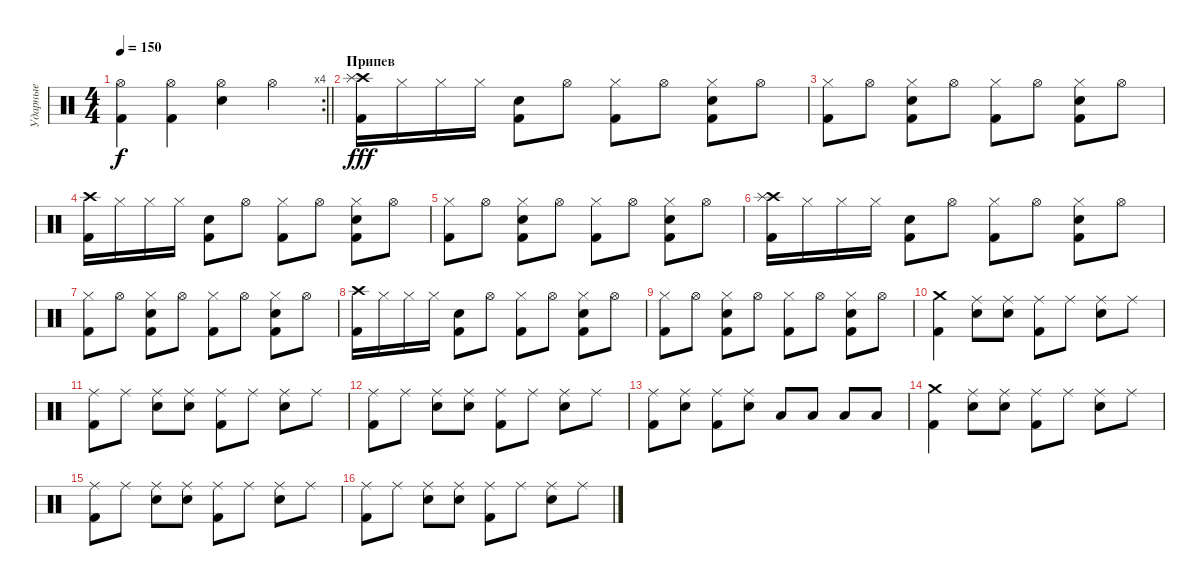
\track ("Ударные" "Ударные") {instrument percussion}
\staff {score}
\articulation defaults
\rc 4
\ts (4 4)
\tempo 150
\clef neutral
\barLineRight lightlight
\ks c
("Kick (hit) 2" "Hi-Hat (open)").4{dy f} ("Kick (hit) 2" "Hi-Hat (open)").4 ("Electric Snare (hit)" "Hi-Hat (open)").4 "Hi-Hat (open)".4 |
\section ("" "Припев")
("Crash high (hit)" "Kick (hit) 2" "Splash (hit)").16{dy fff} "Hi-Hat (closed)".16 "Hi-Hat (closed)".16 "Hi-Hat (closed)".16 ("Electric Snare (hit)" "Kick (hit) 2").8 "Hi-Hat (open)".8 ("Hi-Hat (closed)" "Kick (hit) 2").8 "Hi-Hat (open)".8 ("Hi-Hat (closed)" "Electric Snare (hit)" "Kick (hit) 2").8 "Hi-Hat (open)".8 |
("Hi-Hat (closed)" "Kick (hit) 2").8 "Hi-Hat (open)".8 ("Hi-Hat (closed)" "Electric Snare (hit)" "Kick (hit) 2").8 "Hi-Hat (open)".8 ("Hi-Hat (closed)" "Kick (hit) 2").8 "Hi-Hat (open)".8 ("Hi-Hat (closed)" "Electric Snare (hit)" "Kick (hit) 2").8 "Hi-Hat (open)".8 |
("Crash high (hit)" "Kick (hit) 2").16 "Hi-Hat (closed)".16 "Hi-Hat (closed)".16 "Hi-Hat (closed)".16 ("Electric Snare (hit)" "Kick (hit) 2").8 "Hi-Hat (open)".8 ("Hi-Hat (closed)" "Kick (hit) 2").8 "Hi-Hat (open)".8 ("Hi-Hat (closed)" "Electric Snare (hit)" "Kick (hit) 2").8 "Hi-Hat (open)".8 |
("Hi-Hat (closed)" "Kick (hit) 2").8 "Hi-Hat (open)".8 ("Hi-Hat (closed)" "Electric Snare (hit)" "Kick (hit) 2").8 "Hi-Hat (open)".8 ("Hi-Hat (closed)" "Kick (hit) 2").8 "Hi-Hat (open)".8 ("Hi-Hat (closed)" "Electric Snare (hit)" "Kick (hit) 2").8 "Hi-Hat (open)".8 |
("Crash high (hit)" "Kick (hit) 2" "Splash (hit)").16 "Hi-Hat (closed)".16 "Hi-Hat (closed)".16 "Hi-Hat (closed)".16 ("Electric Snare (hit)" "Kick (hit) 2").8 "Hi-Hat (open)".8 ("Hi-Hat (closed)" "Kick (hit) 2").8 "Hi-Hat (open)".8 ("Hi-Hat (closed)" "Electric Snare (hit)" "Kick (hit) 2").8 "Hi-Hat (open)".8 |
("Hi-Hat (closed)" "Kick (hit) 2").8 "Hi-Hat (open)".8 ("Hi-Hat (closed)" "Electric Snare (hit)" "Kick (hit) 2").8 "Hi-Hat (open)".8 ("Hi-Hat (closed)" "Kick (hit) 2").8 "Hi-Hat (open)".8 ("Hi-Hat (closed)" "Electric Snare (hit)" "Kick (hit) 2").8 "Hi-Hat (open)".8 |
("Crash high (hit)" "Kick (hit) 2").16 "Hi-Hat (closed)".16 "Hi-Hat (closed)".16 "Hi-Hat (closed)".16 ("Electric Snare (hit)" "Kick (hit) 2").8 "Hi-Hat (open)".8 ("Hi-Hat (closed)" "Kick (hit) 2").8 "Hi-Hat (open)".8 ("Hi-Hat (closed)" "Electric Snare (hit)" "Kick (hit) 2").8 "Hi-Hat (open)".8 |
("Hi-Hat (closed)" "Kick (hit) 2").8 "Hi-Hat (open)".8 ("Hi-Hat (closed)" "Electric Snare (hit)" "Kick (hit) 2").8 "Hi-Hat (open)".8 ("Hi-Hat (closed)" "Kick (hit) 2").8 "Hi-Hat (open)".8 ("Hi-Hat (closed)" "Electric Snare (hit)" "Kick (hit) 2").8 "Hi-Hat (open)".8 |
("Crash medium (hit)" "Kick (hit) 2").4 ("Ride (middle)" "Electric Snare (hit)").8 ("Ride (middle)" "Electric Snare (hit)").8 ("Ride (middle)" "Kick (hit) 2").8 "Ride (middle)".8 ("Ride (middle)" "Electric Snare (hit)").8 "Ride (middle)".8 |
("Ride (middle)" "Kick (hit) 2").8 "Ride (middle)".8 ("Ride (middle)" "Electric Snare (hit)").8 ("Ride (middle)" "Electric Snare (hit)").8 ("Ride (middle)" "Kick (hit) 2").8 "Ride (middle)".8 ("Ride (middle)" "Electric Snare (hit)").8 "Ride (middle)".8 |
("Ride (middle)" "Kick (hit) 2").8 "Ride (middle)".8 ("Ride (middle)" "Electric Snare (hit)").8 ("Ride (middle)" "Electric Snare (hit)").8 ("Ride (middle)" "Kick (hit) 2").8 "Ride (middle)".8 ("Ride (middle)" "Electric Snare (hit)").8 "Ride (middle)".8 |
("Ride (middle)" "Kick (hit) 2").8 ("Ride (middle)" "Electric Snare (hit)").8 ("Ride (middle)" "Kick (hit) 2").8 ("Ride (middle)" "Electric Snare (hit)").8 "Low Tom (hit)".8 "Low Tom (hit)".8 "Low Floor Tom (hit)".8 "Low Floor Tom (hit)".8 |
("Crash medium (hit)" "Kick (hit) 2").4 ("Ride (middle)" "Electric Snare (hit)").8 ("Ride (middle)" "Electric Snare (hit)").8 ("Ride (middle)" "Kick (hit) 2").8 "Ride (middle)".8 ("Ride (middle)" "Electric Snare (hit)").8 "Ride (middle)".8 |
("Ride (middle)" "Kick (hit) 2").8 "Ride (middle)".8 ("Ride (middle)" "Electric Snare (hit)").8 ("Ride (middle)" "Electric Snare (hit)").8 ("Ride (middle)" "Kick (hit) 2").8 "Ride (middle)".8 ("Ride (middle)" "Electric Snare (hit)").8 "Ride (middle)".8 |
("Ride (middle)" "Kick (hit) 2").8 "Ride (middle)".8 ("Ride (middle)" "Electric Snare (hit)").8 ("Ride (middle)" "Electric Snare (hit)").8 ("Ride (middle)" "Kick (hit) 2").8 "Ride (middle)".8 ("Ride (middle)" "Electric Snare (hit)").8 "Ride (middle)".8
